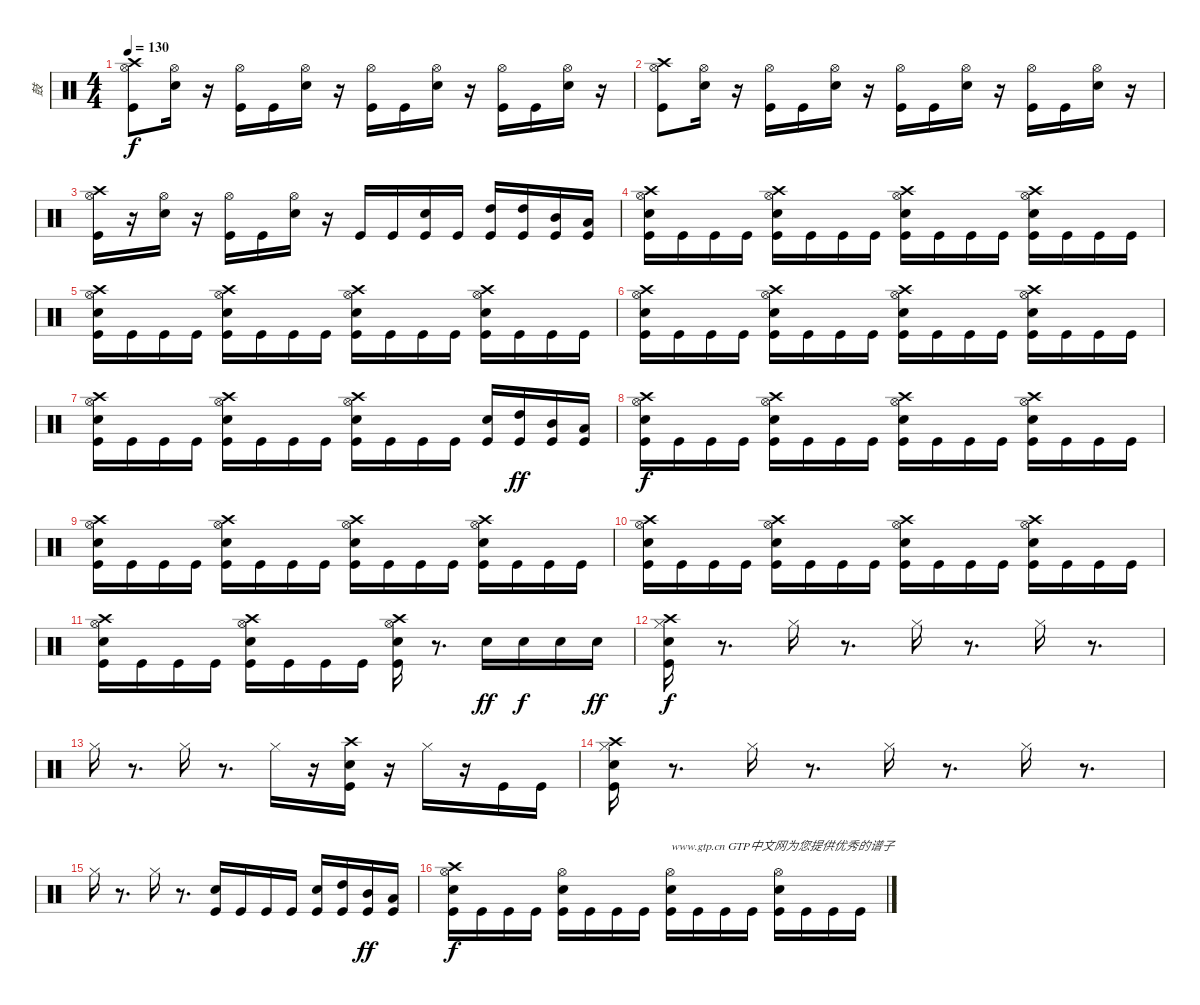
\track ("鼓" "鼓") {instrument percussion}
\staff {score}
\articulation defaults
\ts (4 4)
\tempo 130
\clef neutral
\ks c
("Hi-Hat (open)" "Crash high (hit)" "Kick (hit)").8{dy f} ("Hi-Hat (open)" "Snare (hit) 2").16 r.16 ("Hi-Hat (open)" "Kick (hit)").16 "Kick (hit)".16 ("Hi-Hat (open)" "Snare (hit) 2").16 r.16 ("Hi-Hat (open)" "Kick (hit)").16 "Kick (hit)".16 ("Hi-Hat (open)" "Snare (hit) 2").16 r.16 ("Hi-Hat (open)" "Kick (hit)").16 "Kick (hit)".16 ("Hi-Hat (open)" "Snare (hit) 2").16 r.16 |
("Hi-Hat (open)" "Crash high (hit)" "Kick (hit)").8 ("Hi-Hat (open)" "Snare (hit) 2").16 r.16 ("Hi-Hat (open)" "Kick (hit)").16 "Kick (hit)".16 ("Hi-Hat (open)" "Snare (hit) 2").16 r.16 ("Hi-Hat (open)" "Kick (hit)").16 "Kick (hit)".16 ("Hi-Hat (open)" "Snare (hit) 2").16 r.16 ("Hi-Hat (open)" "Kick (hit)").16 "Kick (hit)".16 ("Hi-Hat (open)" "Snare (hit) 2").16 r.16 |
("Hi-Hat (open)" "Crash high (hit)" "Kick (hit)").16 r.16 ("Hi-Hat (open)" "Snare (hit) 2").16 r.16 ("Hi-Hat (open)" "Kick (hit)").16 "Kick (hit)".16 ("Hi-Hat (open)" "Snare (hit) 2").16 r.16 "Kick (hit)".16 "Kick (hit)".16 ("Kick (hit)" "Snare (hit) 2").16 "Kick (hit)".16 ("High Tom (hit)" "Kick (hit)").16 ("High Tom (hit)" "Kick (hit)").16 ("Kick (hit)" "Mid Tom (hit)").16 ("Low Tom (hit)" "Kick (hit)").16 |
("Crash high (hit)" "Hi-Hat (open)" "Snare (hit) 2" "Kick (hit)").16 "Kick (hit)".16 "Kick (hit)".16 "Kick (hit)".16 ("Crash high (hit)" "Hi-Hat (open)" "Snare (hit) 2" "Kick (hit)").16 "Kick (hit)".16 "Kick (hit)".16 "Kick (hit)".16 ("Crash high (hit)" "Hi-Hat (open)" "Snare (hit) 2" "Kick (hit)").16 "Kick (hit)".16 "Kick (hit)".16 "Kick (hit)".16 ("Crash high (hit)" "Hi-Hat (open)" "Snare (hit) 2" "Kick (hit)").16 "Kick (hit)".16 "Kick (hit)".16 "Kick (hit)".16 |
("Crash high (hit)" "Hi-Hat (open)" "Snare (hit) 2" "Kick (hit)").16 "Kick (hit)".16 "Kick (hit)".16 "Kick (hit)".16 ("Crash high (hit)" "Hi-Hat (open)" "Snare (hit) 2" "Kick (hit)").16 "Kick (hit)".16 "Kick (hit)".16 "Kick (hit)".16 ("Crash high (hit)" "Hi-Hat (open)" "Snare (hit) 2" "Kick (hit)").16 "Kick (hit)".16 "Kick (hit)".16 "Kick (hit)".16 ("Crash high (hit)" "Hi-Hat (open)" "Snare (hit) 2" "Kick (hit)").16 "Kick (hit)".16 "Kick (hit)".16 "Kick (hit)".16 |
("Crash high (hit)" "Hi-Hat (open)" "Snare (hit) 2" "Kick (hit)").16 "Kick (hit)".16 "Kick (hit)".16 "Kick (hit)".16 ("Crash high (hit)" "Hi-Hat (open)" "Snare (hit) 2" "Kick (hit)").16 "Kick (hit)".16 "Kick (hit)".16 "Kick (hit)".16 ("Crash high (hit)" "Hi-Hat (open)" "Snare (hit) 2" "Kick (hit)").16 "Kick (hit)".16 "Kick (hit)".16 "Kick (hit)".16 ("Crash high (hit)" "Hi-Hat (open)" "Snare (hit) 2" "Kick (hit)").16 "Kick (hit)".16 "Kick (hit)".16 "Kick (hit)".16 |
("Crash high (hit)" "Hi-Hat (open)" "Snare (hit) 2" "Kick (hit)").16 "Kick (hit)".16 "Kick (hit)".16 "Kick (hit)".16 ("Crash high (hit)" "Hi-Hat (open)" "Snare (hit) 2" "Kick (hit)").16 "Kick (hit)".16 "Kick (hit)".16 "Kick (hit)".16 ("Crash high (hit)" "Hi-Hat (open)" "Snare (hit) 2" "Kick (hit)").16 "Kick (hit)".16 "Kick (hit)".16 "Kick (hit)".16 ("Snare (hit) 2" "Kick (hit)").16 ("High Tom (hit)" "Kick (hit)").16{dy ff} ("Mid Tom (hit)" "Kick (hit)").16 ("Low Tom (hit)" "Kick (hit)").16 |
("Crash high (hit)" "Hi-Hat (open)" "Snare (hit) 2" "Kick (hit)").16{dy f} "Kick (hit)".16 "Kick (hit)".16 "Kick (hit)".16 ("Crash high (hit)" "Hi-Hat (open)" "Snare (hit) 2" "Kick (hit)").16 "Kick (hit)".16 "Kick (hit)".16 "Kick (hit)".16 ("Crash high (hit)" "Hi-Hat (open)" "Snare (hit) 2" "Kick (hit)").16 "Kick (hit)".16 "Kick (hit)".16 "Kick (hit)".16 ("Crash high (hit)" "Hi-Hat (open)" "Snare (hit) 2" "Kick (hit)").16 "Kick (hit)".16 "Kick (hit)".16 "Kick (hit)".16 |
("Crash high (hit)" "Hi-Hat (open)" "Snare (hit) 2" "Kick (hit)").16 "Kick (hit)".16 "Kick (hit)".16 "Kick (hit)".16 ("Crash high (hit)" "Hi-Hat (open)" "Snare (hit) 2" "Kick (hit)").16 "Kick (hit)".16 "Kick (hit)".16 "Kick (hit)".16 ("Crash high (hit)" "Hi-Hat (open)" "Snare (hit) 2" "Kick (hit)").16 "Kick (hit)".16 "Kick (hit)".16 "Kick (hit)".16 ("Crash high (hit)" "Hi-Hat (open)" "Snare (hit) 2" "Kick (hit)").16 "Kick (hit)".16 "Kick (hit)".16 "Kick (hit)".16 |
("Crash high (hit)" "Hi-Hat (open)" "Snare (hit) 2" "Kick (hit)").16 "Kick (hit)".16 "Kick (hit)".16 "Kick (hit)".16 ("Crash high (hit)" "Hi-Hat (open)" "Snare (hit) 2" "Kick (hit)").16 "Kick (hit)".16 "Kick (hit)".16 "Kick (hit)".16 ("Crash high (hit)" "Hi-Hat (open)" "Snare (hit) 2" "Kick (hit)").16 "Kick (hit)".16 "Kick (hit)".16 "Kick (hit)".16 ("Crash high (hit)" "Hi-Hat (open)" "Snare (hit) 2" "Kick (hit)").16 "Kick (hit)".16 "Kick (hit)".16 "Kick (hit)".16 |
("Crash high (hit)" "Hi-Hat (open)" "Snare (hit) 2" "Kick (hit)").16 "Kick (hit)".16 "Kick (hit)".16 "Kick (hit)".16 ("Crash high (hit)" "Hi-Hat (open)" "Snare (hit) 2" "Kick (hit)").16 "Kick (hit)".16 "Kick (hit)".16 "Kick (hit)".16 ("Crash high (hit)" "Hi-Hat (open)" "Snare (hit) 2" "Kick (hit)").16 r.8{d} "Snare (hit) 2".16{dy ff} "Snare (hit) 2".16{dy f} "Snare (hit) 2".16 "Snare (hit) 2".16{dy ff} |
("Crash high (hit)" "Snare (hit) 2" "Kick (hit)" "Hi-Hat (closed)").16{dy f} r.8{d} "Hi-Hat (closed)".16 r.8{d} "Hi-Hat (closed)".16 r.8{d} "Hi-Hat (closed)".16 r.8{d} |
"Hi-Hat (closed)".16 r.8{d} "Hi-Hat (closed)".16 r.8{d} "Hi-Hat (closed)".16 r.16 ("Crash high (hit)" "Snare (hit) 2" "Kick (hit)").16 r.16 "Hi-Hat (closed)".16 r.16 "Kick (hit)".16 "Kick (hit)".16 |
("Crash high (hit)" "Snare (hit) 2" "Kick (hit)" "Hi-Hat (closed)").16 r.8{d} "Hi-Hat (closed)".16 r.8{d} "Hi-Hat (closed)".16 r.8{d} "Hi-Hat (closed)".16 r.8{d} |
"Hi-Hat (closed)".16 r.8{d} "Hi-Hat (closed)".16 r.8{d} ("Snare (hit) 2" "Kick (hit)").16 "Kick (hit)".16 "Kick (hit)".16 "Kick (hit)".16 ("Snare (hit) 2" "Kick (hit)").16 ("High Tom (hit)" "Kick (hit)").16 ("Mid Tom (hit)" "Kick (hit)").16{dy ff} ("Low Tom (hit)" "Kick (hit)").16 |
("Crash high (hit)" "Hi-Hat (open)" "Snare (hit) 2" "Kick (hit)").16{dy f} "Kick (hit)".16 "Kick (hit)".16 "Kick (hit)".16 ("Hi-Hat (open)" "Snare (hit) 2" "Kick (hit)").16 "Kick (hit)".16 "Kick (hit)".16 "Kick (hit)".16 ("Hi-Hat (open)" "Snare (hit) 2" "Kick (hit)").16{txt "www.gtp.cn GTP中文网为您提供优秀的谱子"} "Kick (hit)".16 "Kick (hit)".16 "Kick (hit)".16 ("Hi-Hat (open)" "Snare (hit) 2" "Kick (hit)").16 "Kick (hit)".16 "Kick (hit)".16 "Kick (hit)".16
